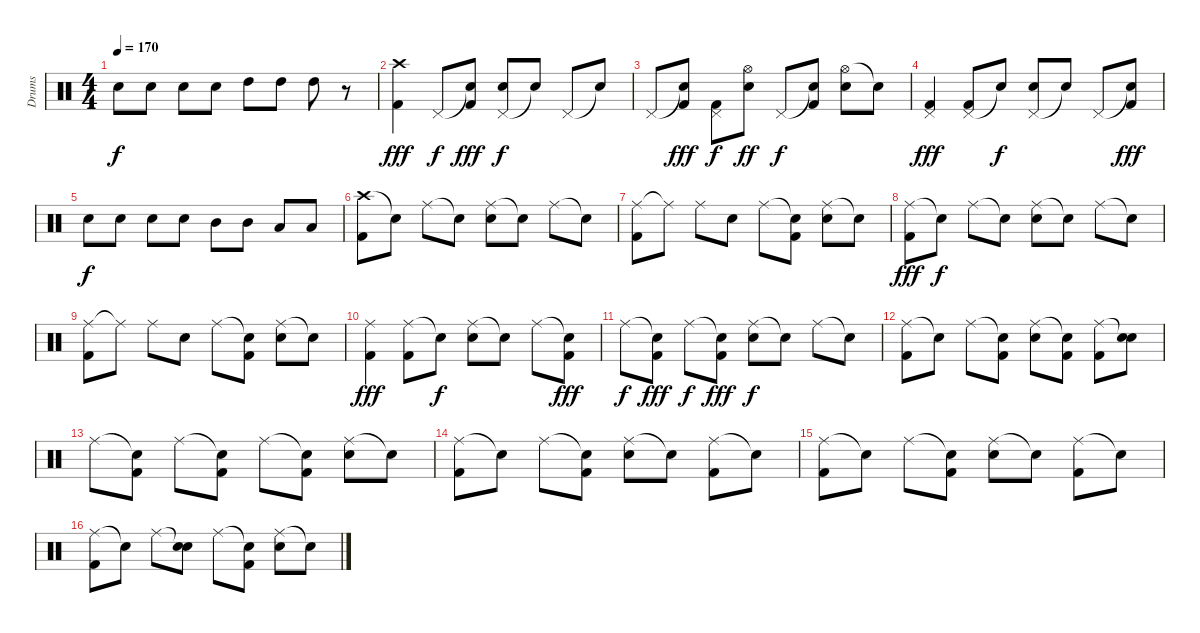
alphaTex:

\track ("Drums" "Drums") {instrument percussion}
\staff {score}
\articulation defaults
\ts (4 4)
\tempo 170
\clef neutral
\ks c "Electric Snare (hit)".8{dy f} "Electric Snare (hit)".8 "Electric Snare (hit)".8 "Electric Snare (hit)".8 "High Tom (hit)".8 "High Tom (hit)".8 "High Tom (hit)".8
r.8 |
("Crash high (hit)" "Kick (hit) 2").4{dy fff} "Pedal Hi-Hat (hit)".8{dy f} ("Snare (hit)"{t} "Kick (hit) 2").8{dy fff} ("Pedal Hi-Hat (hit)" "Electric Snare (hit)").8{dy f} "Snare (hit)"{t}.8 "Pedal Hi-Hat (hit)".8 "Snare (hit)"{t}.8 |
"Pedal Hi-Hat (hit)".8 ("Snare (hit)"{t} "Kick (hit) 2").8{dy fff} ("Pedal Hi-Hat (hit)" "Kick (hit) 2").8{dy f} ("Hi-Hat (open)" "Electric Snare (hit)").8{dy ff} "Pedal Hi-Hat (hit)".8{dy f} ("Snare (hit)"{t} "Kick (hit) 2").8 ("Hi-Hat (open)" "Electric Snare (hit)").8 "Snare (hit)"{t}.8 |
("Pedal Hi-Hat (hit)" "Kick (hit) 2").4{dy fff} ("Pedal Hi-Hat (hit)" "Kick (hit) 2").8 "Snare (hit)"{t}.8{dy f} ("Pedal Hi-Hat (hit)" "Electric Snare (hit)").8 "Snare (hit)"{t}.8 "Pedal Hi-Hat (hit)".8 ("Snare (hit)"{t} "Kick (hit) 2").8{dy fff} |
"Electric Snare (hit)".8{dy f} "Electric Snare (hit)".8 "Electric Snare (hit)".8 "Electric Snare (hit)".8 "Mid Tom (hit)".8 "Mid Tom (hit)".8 "Low Tom (hit)".8 "Low Tom (hit)".8 |
("Crash high (hit)" "Kick (hit) 2").8 "Snare (hit)"{t}.8 "Ride (middle)".8 "Snare (hit)"{t}.8 ("Ride (middle)" "Electric Snare (hit)").8 "Snare (hit)"{t}.8 "Ride (middle)".8 "Snare (hit)"{t}.8 |
("Ride (middle)" "Kick (hit) 2").8 "Ride (middle)"{t}.8 "Ride (middle)".8 "Electric Snare (hit)".8 "Ride (middle)".8 ("Snare (hit)"{t} "Kick (hit) 2").8 ("Ride (middle)" "Electric Snare (hit)").8 "Snare (hit)"{t}.8 |
("Ride (middle)" "Kick (hit) 2").8{dy fff} "Snare (hit)"{t}.8{dy f} "Ride (middle)".8 "Snare (hit)"{t}.8 ("Ride (middle)" "Electric Snare (hit)").8 "Snare (hit)"{t}.8 "Ride (middle)".8 "Snare (hit)"{t}.8 |
("Ride (middle)" "Kick (hit) 2").8 "Ride (middle)"{t}.8 "Ride (middle)".8 "Electric Snare (hit)".8 "Ride (middle)".8 ("Snare (hit)"{t} "Kick (hit) 2").8 ("Ride (middle)" "Electric Snare (hit)").8 "Snare (hit)"{t}.8 |
("Ride (middle)" "Kick (hit) 2").4{dy fff} ("Ride (middle)" "Kick (hit) 2").8 "Snare (hit)"{t}.8{dy f} ("Ride (middle)" "Electric Snare (hit)").8 "Snare (hit)"{t}.8 "Ride (middle)".8 ("Snare (hit)"{t} "Kick (hit) 2").8{dy fff} |
"Ride (middle)".8{dy f} ("Snare (hit)"{t} "Kick (hit) 2").8{dy fff} "Ride (middle)".8{dy f} ("Snare (hit)"{t} "Kick (hit) 2").8{dy fff} ("Ride (middle)" "Electric Snare (hit)").8{dy f} "Snare (hit)"{t}.8 "Ride (middle)".8 "Snare (hit)"{t}.8 |
("Ride (middle)" "Kick (hit) 2").8 "Snare (hit)"{t}.8 "Ride (middle)".8 ("Snare (hit)"{t} "Kick (hit) 2").8 ("Ride (middle)" "Electric Snare (hit)").8 ("Snare (hit)"{t} "Kick (hit) 2").8 ("Ride (middle)" "Kick (hit) 2").8 ("Snare (hit)"{t} "Electric Snare (hit)").8 |
"Ride (middle)".8 ("Snare (hit)"{t} "Kick (hit) 2").8 "Ride (middle)".8 ("Snare (hit)"{t} "Kick (hit) 2").8 "Ride (middle)".8 ("Snare (hit)"{t} "Kick (hit) 2").8 ("Ride (middle)" "Electric Snare (hit)").8 "Snare (hit)"{t}.8 |
("Ride (middle)" "Kick (hit) 2").8 "Snare (hit)"{t}.8 "Ride (middle)".8 ("Snare (hit)"{t} "Kick (hit) 2").8 ("Ride (middle)" "Electric Snare (hit)").8 "Snare (hit)"{t}.8 ("Ride (middle)" "Kick (hit) 2").8 "Snare (hit)"{t}.8 |
("Ride (middle)" "Kick (hit) 2").8 "Snare (hit)"{t}.8 "Ride (middle)".8 ("Snare (hit)"{t} "Kick (hit) 2").8 ("Ride (middle)" "Electric Snare (hit)").8 "Snare (hit)"{t}.8 ("Ride (middle)" "Kick (hit) 2").8 "Snare (hit)"{t}.8 |
("Ride (middle)" "Kick (hit) 2").8 "Snare (hit)"{t}.8 "Ride (middle)".8 ("Snare (hit)"{t} "Electric Snare (hit)").8 "Ride (middle)".8 ("Snare (hit)"{t} "Kick (hit) 2").8 ("Ride (middle)" "Electric Snare (hit)").8 "Snare (hit)"{t}.8
